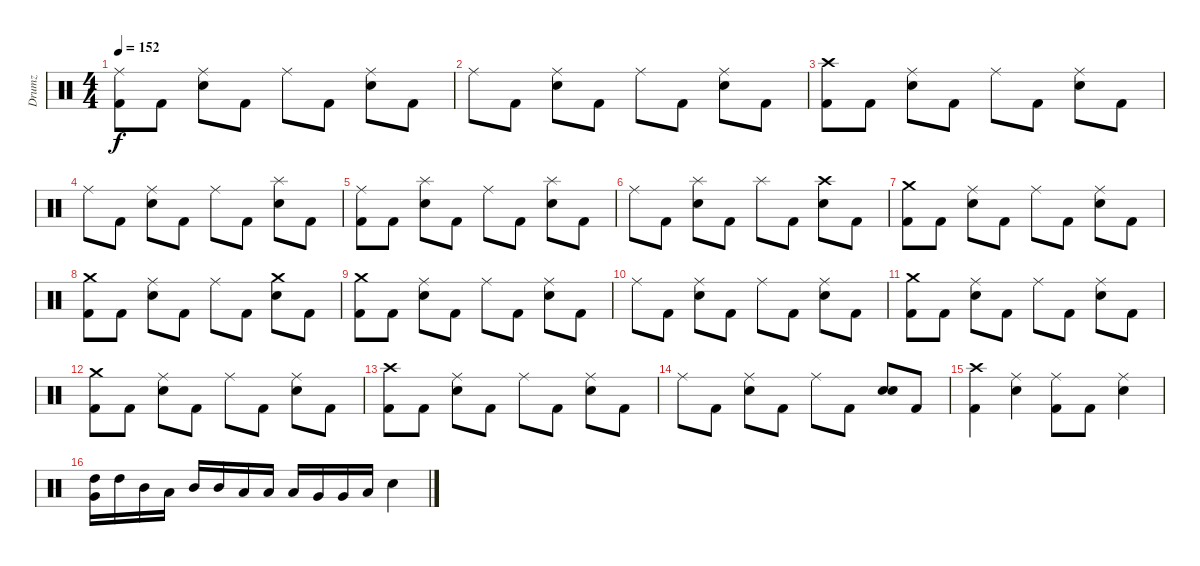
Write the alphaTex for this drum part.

\track ("Drumz" "Drumz") {instrument percussion}
\staff {score}
\articulation defaults
\ts (4 4)
\tempo 152
\clef neutral
\ks c
("Kick (hit) 2" "Ride (middle)").8{dy f} "Kick (hit) 2".8 ("Snare (hit) 2" "Ride (middle)").8 "Kick (hit) 2".8 "Ride (middle)".8 "Kick (hit) 2".8 ("Snare (hit) 2" "Ride (middle)").8 "Kick (hit) 2".8 |
"Ride (middle)".8 "Kick (hit) 2".8 ("Snare (hit) 2" "Ride (middle)").8 "Kick (hit) 2".8 "Ride (middle)".8 "Kick (hit) 2".8 ("Snare (hit) 2" "Ride (middle)").8 "Kick (hit) 2".8 |
("Kick (hit) 2" "Crash high (hit)").8 "Kick (hit) 2".8 ("Snare (hit) 2" "Ride (middle)").8 "Kick (hit) 2".8 "Ride (middle)".8 "Kick (hit) 2".8 ("Snare (hit) 2" "Ride (middle)").8 "Kick (hit) 2".8 |
"Ride (middle)".8 "Kick (hit) 2".8 ("Snare (hit) 2" "Ride (middle)").8 "Kick (hit) 2".8 "Ride (middle)".8 "Kick (hit) 2".8 ("Snare (hit) 2" "Splash (hit)").8 "Kick (hit) 2".8 |
("Kick (hit) 2" "Ride (middle)").8 "Kick (hit) 2".8 ("Snare (hit) 2" "Splash (hit)").8 "Kick (hit) 2".8 "Ride (middle)".8 "Kick (hit) 2".8 ("Snare (hit) 2" "Splash (hit)").8 "Kick (hit) 2".8 |
"Ride (middle)".8 "Kick (hit) 2".8 ("Snare (hit) 2" "Splash (hit)").8 "Kick (hit) 2".8 "Splash (hit)".8 "Kick (hit) 2".8 ("Snare (hit) 2" "Crash high (hit)").8 "Kick (hit) 2".8 |
("Kick (hit) 2" "Crash medium (hit)").8 "Kick (hit) 2".8 ("Snare (hit) 2" "Ride (middle)").8 "Kick (hit) 2".8 "Ride (middle)".8 "Kick (hit) 2".8 ("Snare (hit) 2" "Ride (middle)").8 "Kick (hit) 2".8 |
("Kick (hit) 2" "Crash medium (hit)").8 "Kick (hit) 2".8 ("Snare (hit) 2" "Ride (middle)").8 "Kick (hit) 2".8 "Ride (middle)".8 "Kick (hit) 2".8 ("Snare (hit) 2" "Crash medium (hit)").8 "Kick (hit) 2".8 |
("Kick (hit) 2" "Crash medium (hit)").8 "Kick (hit) 2".8 ("Snare (hit) 2" "Ride (middle)").8 "Kick (hit) 2".8 "Ride (middle)".8 "Kick (hit) 2".8 ("Snare (hit) 2" "Ride (middle)").8 "Kick (hit) 2".8 |
"Ride (middle)".8 "Kick (hit) 2".8 ("Snare (hit) 2" "Ride (middle)").8 "Kick (hit) 2".8 "Ride (middle)".8 "Kick (hit) 2".8 ("Snare (hit) 2" "Ride (middle)").8 "Kick (hit) 2".8 |
("Kick (hit) 2" "Crash medium (hit)").8 "Kick (hit) 2".8 ("Snare (hit) 2" "Ride (middle)").8 "Kick (hit) 2".8 "Ride (middle)".8 "Kick (hit) 2".8 ("Snare (hit) 2" "Ride (middle)").8 "Kick (hit) 2".8 |
("Kick (hit) 2" "Crash medium (hit)").8 "Kick (hit) 2".8 ("Snare (hit) 2" "Ride (middle)").8 "Kick (hit) 2".8 "Ride (middle)".8 "Kick (hit) 2".8 ("Snare (hit) 2" "Ride (middle)").8 "Kick (hit) 2".8 |
("Kick (hit) 2" "Crash high (hit)").8 "Kick (hit) 2".8 ("Snare (hit) 2" "Ride (middle)").8 "Kick (hit) 2".8 "Ride (middle)".8 "Kick (hit) 2".8 ("Snare (hit) 2" "Ride (middle)").8 "Kick (hit) 2".8 |
"Ride (middle)".8 "Kick (hit) 2".8 ("Snare (hit) 2" "Ride (middle)").8 "Kick (hit) 2".8 "Ride (middle)".8 "Kick (hit) 2".8 ("Snare (hit) 2" "Snare (hit) 2").8 "Kick (hit) 2".8 |
("Kick (hit) 2" "Crash high (hit)").4 ("Snare (hit) 2" "Ride (middle)").4 ("Kick (hit) 2" "Ride (middle)").8 "Kick (hit) 2".8 ("Snare (hit) 2" "Ride (middle)").4 |
("High Tom (hit)" "Very Low Tom (hit)").16 "High Tom (hit)".16 "Mid Tom (hit)".16 "Low Tom (hit)".16 "Mid Tom (hit)".16 "Mid Tom (hit)".16 "Low Tom (hit)".16 "Low Tom (hit)".16 "Low Tom (hit)".16 "Very Low Tom (hit)".16 "Very Low Tom (hit)".16 "Low Floor Tom (hit)".16 "Snare (hit) 2".4
